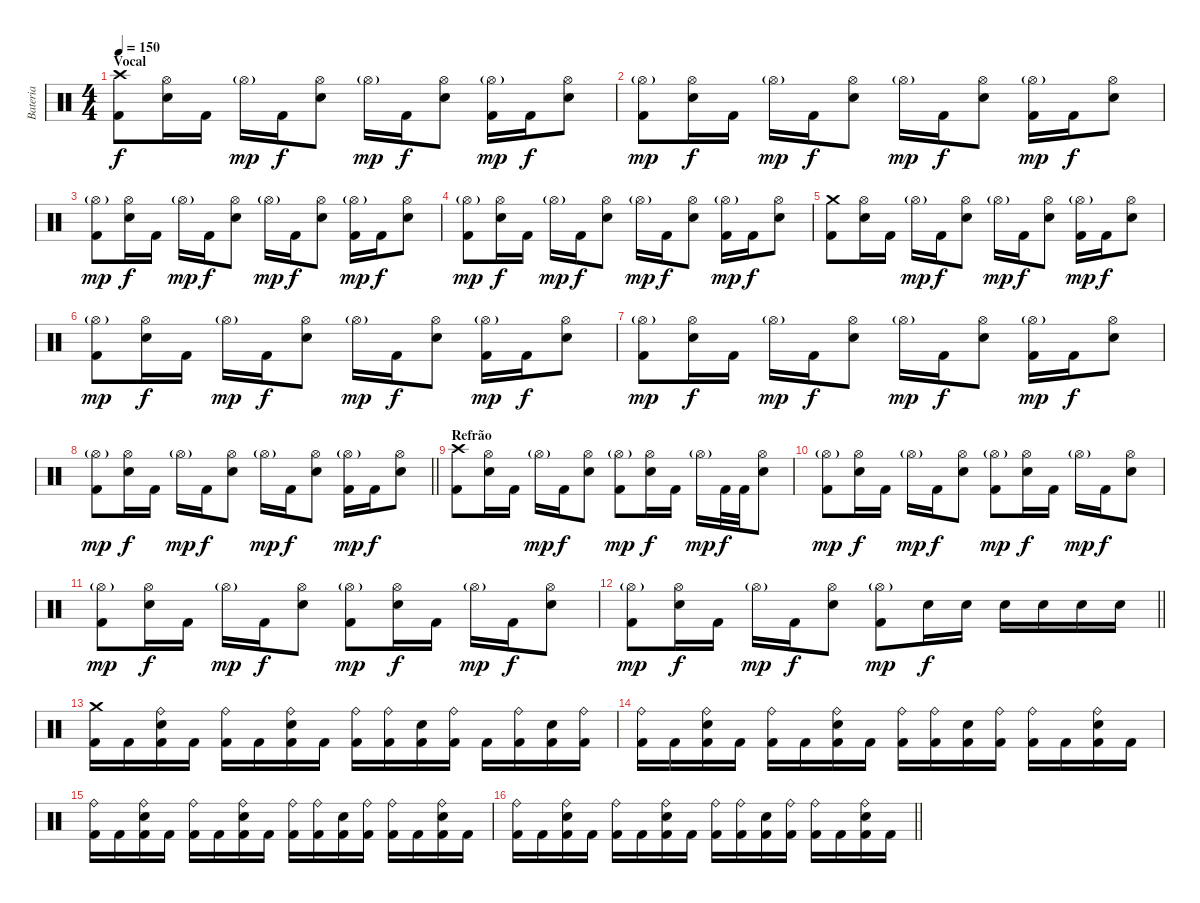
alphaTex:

\track ("Bateria" "Bateria") {instrument percussion}
\staff {score}
\articulation defaults
\ts (4 4)
\section ("" "Vocal")
\tempo 150
\clef neutral
\ks c
("Crash high (hit)" "Kick (hit) 2").8{dy f} ("Hi-Hat (open)" "Electric Snare (hit)").16 "Kick (hit) 2".16 "Hi-Hat (open)"{g}.16{dy mp} "Kick (hit) 2".16{dy f} ("Hi-Hat (open)" "Electric Snare (hit)").8 "Hi-Hat (open)"{g}.16{dy mp} "Kick (hit) 2".16{dy f} ("Hi-Hat (open)" "Electric Snare (hit)").8 ("Hi-Hat (open)"{g} "Kick (hit) 2").16{dy mp} "Kick (hit) 2".16{dy f} ("Hi-Hat (open)" "Electric Snare (hit)").8 |
("Hi-Hat (open)"{g} "Kick (hit) 2").8{dy mp} ("Hi-Hat (open)" "Electric Snare (hit)").16{dy f} "Kick (hit) 2".16 "Hi-Hat (open)"{g}.16{dy mp} "Kick (hit) 2".16{dy f} ("Hi-Hat (open)" "Electric Snare (hit)").8 "Hi-Hat (open)"{g}.16{dy mp} "Kick (hit) 2".16{dy f} ("Hi-Hat (open)" "Electric Snare (hit)").8 ("Hi-Hat (open)"{g} "Kick (hit) 2").16{dy mp} "Kick (hit) 2".16{dy f} ("Hi-Hat (open)" "Electric Snare (hit)").8 |
("Hi-Hat (open)"{g} "Kick (hit) 2").8{dy mp} ("Hi-Hat (open)" "Electric Snare (hit)").16{dy f} "Kick (hit) 2".16 "Hi-Hat (open)"{g}.16{dy mp} "Kick (hit) 2".16{dy f} ("Hi-Hat (open)" "Electric Snare (hit)").8 "Hi-Hat (open)"{g}.16{dy mp} "Kick (hit) 2".16{dy f} ("Hi-Hat (open)" "Electric Snare (hit)").8 ("Hi-Hat (open)"{g} "Kick (hit) 2").16{dy mp} "Kick (hit) 2".16{dy f} ("Hi-Hat (open)" "Electric Snare (hit)").8 |
("Hi-Hat (open)"{g} "Kick (hit) 2").8{dy mp} ("Hi-Hat (open)" "Electric Snare (hit)").16{dy f} "Kick (hit) 2".16 "Hi-Hat (open)"{g}.16{dy mp} "Kick (hit) 2".16{dy f} ("Hi-Hat (open)" "Electric Snare (hit)").8 "Hi-Hat (open)"{g}.16{dy mp} "Kick (hit) 2".16{dy f} ("Hi-Hat (open)" "Electric Snare (hit)").8 ("Hi-Hat (open)"{g} "Kick (hit) 2").16{dy mp} "Kick (hit) 2".16{dy f} ("Hi-Hat (open)" "Electric Snare (hit)").8 |
("Crash medium (hit)" "Kick (hit) 2").8 ("Hi-Hat (open)" "Electric Snare (hit)").16 "Kick (hit) 2".16 "Hi-Hat (open)"{g}.16{dy mp} "Kick (hit) 2".16{dy f} ("Hi-Hat (open)" "Electric Snare (hit)").8 "Hi-Hat (open)"{g}.16{dy mp} "Kick (hit) 2".16{dy f} ("Hi-Hat (open)" "Electric Snare (hit)").8 ("Hi-Hat (open)"{g} "Kick (hit) 2").16{dy mp} "Kick (hit) 2".16{dy f} ("Hi-Hat (open)" "Electric Snare (hit)").8 |
("Hi-Hat (open)"{g} "Kick (hit) 2").8{dy mp} ("Hi-Hat (open)" "Electric Snare (hit)").16{dy f} "Kick (hit) 2".16 "Hi-Hat (open)"{g}.16{dy mp} "Kick (hit) 2".16{dy f} ("Hi-Hat (open)" "Electric Snare (hit)").8 "Hi-Hat (open)"{g}.16{dy mp} "Kick (hit) 2".16{dy f} ("Hi-Hat (open)" "Electric Snare (hit)").8 ("Hi-Hat (open)"{g} "Kick (hit) 2").16{dy mp} "Kick (hit) 2".16{dy f} ("Hi-Hat (open)" "Electric Snare (hit)").8 |
("Hi-Hat (open)"{g} "Kick (hit) 2").8{dy mp} ("Hi-Hat (open)" "Electric Snare (hit)").16{dy f} "Kick (hit) 2".16 "Hi-Hat (open)"{g}.16{dy mp} "Kick (hit) 2".16{dy f} ("Hi-Hat (open)" "Electric Snare (hit)").8 "Hi-Hat (open)"{g}.16{dy mp} "Kick (hit) 2".16{dy f} ("Hi-Hat (open)" "Electric Snare (hit)").8 ("Hi-Hat (open)"{g} "Kick (hit) 2").16{dy mp} "Kick (hit) 2".16{dy f} ("Hi-Hat (open)" "Electric Snare (hit)").8 |
\barLineRight lightlight
("Hi-Hat (open)"{g} "Kick (hit) 2").8{dy mp} ("Hi-Hat (open)" "Electric Snare (hit)").16{dy f} "Kick (hit) 2".16 "Hi-Hat (open)"{g}.16{dy mp} "Kick (hit) 2".16{dy f} ("Hi-Hat (open)" "Electric Snare (hit)").8 "Hi-Hat (open)"{g}.16{dy mp} "Kick (hit) 2".16{dy f} ("Hi-Hat (open)" "Electric Snare (hit)").8 ("Hi-Hat (open)"{g} "Kick (hit) 2").16{dy mp} "Kick (hit) 2".16{dy f} ("Hi-Hat (open)" "Electric Snare (hit)").8 |
\section ("" "Refrão")
("Crash high (hit)" "Kick (hit) 2").8 ("Hi-Hat (open)" "Electric Snare (hit)").16 "Kick (hit) 2".16 "Hi-Hat (open)"{g}.16{dy mp} "Kick (hit) 2".16{dy f} ("Hi-Hat (open)" "Electric Snare (hit)").8 ("Hi-Hat (open)"{g} "Kick (hit) 2").8{dy mp} ("Hi-Hat (open)" "Electric Snare (hit)").16{dy f} "Kick (hit) 2".16 "Hi-Hat (open)"{g}.16{dy mp} "Kick (hit) 2".32{dy f} "Kick (hit) 2".32 ("Hi-Hat (open)" "Electric Snare (hit)").8 |
("Hi-Hat (open)"{g} "Kick (hit) 2").8{dy mp} ("Hi-Hat (open)" "Electric Snare (hit)").16{dy f} "Kick (hit) 2".16 "Hi-Hat (open)"{g}.16{dy mp} "Kick (hit) 2".16{dy f} ("Hi-Hat (open)" "Electric Snare (hit)").8 ("Hi-Hat (open)"{g} "Kick (hit) 2").8{dy mp} ("Hi-Hat (open)" "Electric Snare (hit)").16{dy f} "Kick (hit) 2".16 "Hi-Hat (open)"{g}.16{dy mp} "Kick (hit) 2".16{dy f} ("Hi-Hat (open)" "Electric Snare (hit)").8 |
("Hi-Hat (open)"{g} "Kick (hit) 2").8{dy mp} ("Hi-Hat (open)" "Electric Snare (hit)").16{dy f} "Kick (hit) 2".16 "Hi-Hat (open)"{g}.16{dy mp} "Kick (hit) 2".16{dy f} ("Hi-Hat (open)" "Electric Snare (hit)").8 ("Hi-Hat (open)"{g} "Kick (hit) 2").8{dy mp} ("Hi-Hat (open)" "Electric Snare (hit)").16{dy f} "Kick (hit) 2".16 "Hi-Hat (open)"{g}.16{dy mp} "Kick (hit) 2".16{dy f} ("Hi-Hat (open)" "Electric Snare (hit)").8 |
\barLineRight lightlight
("Hi-Hat (open)"{g} "Kick (hit) 2").8{dy mp} ("Hi-Hat (open)" "Electric Snare (hit)").16{dy f} "Kick (hit) 2".16 "Hi-Hat (open)"{g}.16{dy mp} "Kick (hit) 2".16{dy f} ("Hi-Hat (open)" "Electric Snare (hit)").8 ("Hi-Hat (open)"{g} "Kick (hit) 2").8{dy mp} "Electric Snare (hit)".16{dy f} "Electric Snare (hit)".16 "Electric Snare (hit)".16 "Electric Snare (hit)".16 "Electric Snare (hit)".16 "Electric Snare (hit)".16 |
("Crash medium (hit)" "Kick (hit) 2").16 "Kick (hit) 2".16 ("Ride (bell)" "Electric Snare (hit)" "Kick (hit) 2").16 "Kick (hit) 2".16 ("Ride (bell)" "Kick (hit) 2").16 "Kick (hit) 2".16 ("Ride (bell)" "Electric Snare (hit)" "Kick (hit) 2").16 "Kick (hit) 2".16 ("Ride (bell)" "Kick (hit) 2").16 ("Ride (bell)" "Kick (hit) 2").16 ("Electric Snare (hit)" "Kick (hit) 2").16 ("Ride (bell)" "Kick (hit) 2").16 "Kick (hit) 2".16 ("Ride (bell)" "Kick (hit) 2").16 ("Electric Snare (hit)" "Kick (hit) 2").16 ("Ride (bell)" "Kick (hit) 2").16 |
("Ride (bell)" "Kick (hit) 2").16 "Kick (hit) 2".16 ("Ride (bell)" "Electric Snare (hit)" "Kick (hit) 2").16 "Kick (hit) 2".16 ("Ride (bell)" "Kick (hit) 2").16 "Kick (hit) 2".16 ("Ride (bell)" "Electric Snare (hit)" "Kick (hit) 2").16 "Kick (hit) 2".16 ("Ride (bell)" "Kick (hit) 2").16 ("Ride (bell)" "Kick (hit) 2").16 ("Electric Snare (hit)" "Kick (hit) 2").16 ("Ride (bell)" "Kick (hit) 2").16 ("Ride (bell)" "Kick (hit) 2").16 "Kick (hit) 2".16 ("Ride (bell)" "Electric Snare (hit)" "Kick (hit) 2").16 "Kick (hit) 2".16 |
("Ride (bell)" "Kick (hit) 2").16 "Kick (hit) 2".16 ("Ride (bell)" "Electric Snare (hit)" "Kick (hit) 2").16 "Kick (hit) 2".16 ("Ride (bell)" "Kick (hit) 2").16 "Kick (hit) 2".16 ("Ride (bell)" "Electric Snare (hit)" "Kick (hit) 2").16 "Kick (hit) 2".16 ("Ride (bell)" "Kick (hit) 2").16 ("Ride (bell)" "Kick (hit) 2").16 ("Electric Snare (hit)" "Kick (hit) 2").16 ("Ride (bell)" "Kick (hit) 2").16 ("Ride (bell)" "Kick (hit) 2").16 "Kick (hit) 2".16 ("Ride (bell)" "Electric Snare (hit)" "Kick (hit) 2").16 "Kick (hit) 2".16 |
\barLineRight lightlight
("Ride (bell)" "Kick (hit) 2").16 "Kick (hit) 2".16 ("Ride (bell)" "Electric Snare (hit)" "Kick (hit) 2").16 "Kick (hit) 2".16 ("Ride (bell)" "Kick (hit) 2").16 "Kick (hit) 2".16 ("Ride (bell)" "Electric Snare (hit)" "Kick (hit) 2").16 "Kick (hit) 2".16 ("Ride (bell)" "Kick (hit) 2").16 ("Ride (bell)" "Kick (hit) 2").16 ("Electric Snare (hit)" "Kick (hit) 2").16 ("Ride (bell)" "Kick (hit) 2").16 ("Ride (bell)" "Kick (hit) 2").16 "Kick (hit) 2".16 ("Ride (bell)" "Electric Snare (hit)" "Kick (hit) 2").16 "Kick (hit) 2".16
